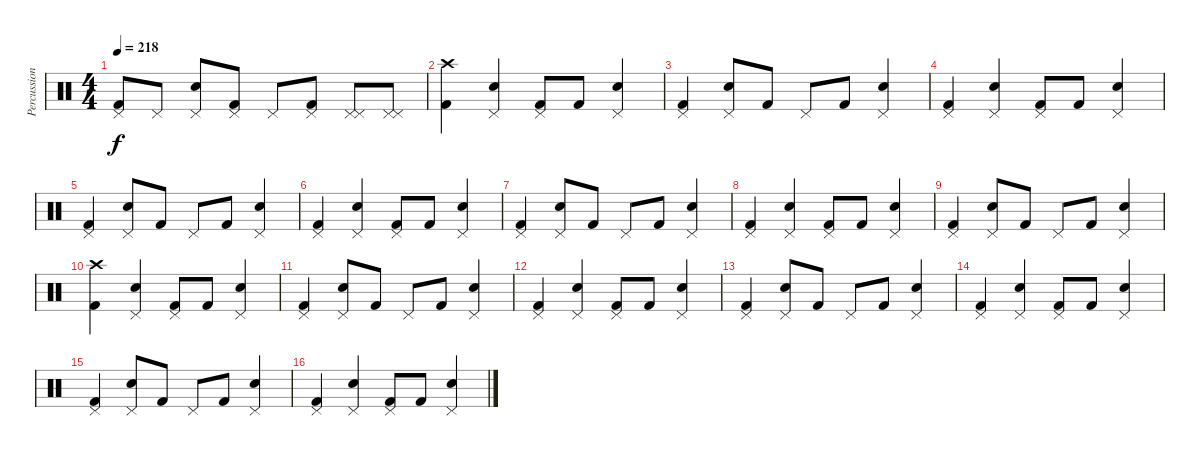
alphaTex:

\track ("Percussion" "Percussion") {instrument percussion}
\staff {score}
\articulation defaults
\ts (4 4)
\tempo 218
\clef neutral
\ks c
("Kick (hit) 2" "Pedal Hi-Hat (hit)").8{dy f} "Pedal Hi-Hat (hit)".8 ("Snare (hit) 2" "Pedal Hi-Hat (hit)").8 ("Kick (hit) 2" "Pedal Hi-Hat (hit)").8 "Pedal Hi-Hat (hit)".8 ("Kick (hit) 2" "Pedal Hi-Hat (hit)").8 ("Pedal Hi-Hat (hit)" "Pedal Hi-Hat (hit)").8 ("Pedal Hi-Hat (hit)" "Pedal Hi-Hat (hit)").8 |
("Kick (hit) 2" "Crash high (hit)").4 ("Snare (hit) 2" "Pedal Hi-Hat (hit)").4 ("Kick (hit) 2" "Pedal Hi-Hat (hit)").8 "Kick (hit) 2".8 ("Snare (hit) 2" "Pedal Hi-Hat (hit)").4 |
("Kick (hit) 2" "Pedal Hi-Hat (hit)").4 ("Snare (hit) 2" "Pedal Hi-Hat (hit)").8 "Kick (hit) 2".8 "Pedal Hi-Hat (hit)".8 "Kick (hit) 2".8 ("Snare (hit) 2" "Pedal Hi-Hat (hit)").4 |
("Kick (hit) 2" "Pedal Hi-Hat (hit)").4 ("Snare (hit) 2" "Pedal Hi-Hat (hit)").4 ("Kick (hit) 2" "Pedal Hi-Hat (hit)").8 "Kick (hit) 2".8 ("Snare (hit) 2" "Pedal Hi-Hat (hit)").4 |
("Kick (hit) 2" "Pedal Hi-Hat (hit)").4 ("Snare (hit) 2" "Pedal Hi-Hat (hit)").8 "Kick (hit) 2".8 "Pedal Hi-Hat (hit)".8 "Kick (hit) 2".8 ("Snare (hit) 2" "Pedal Hi-Hat (hit)").4 |
("Kick (hit) 2" "Pedal Hi-Hat (hit)").4 ("Snare (hit) 2" "Pedal Hi-Hat (hit)").4 ("Kick (hit) 2" "Pedal Hi-Hat (hit)").8 "Kick (hit) 2".8 ("Snare (hit) 2" "Pedal Hi-Hat (hit)").4 |
("Kick (hit) 2" "Pedal Hi-Hat (hit)").4 ("Snare (hit) 2" "Pedal Hi-Hat (hit)").8 "Kick (hit) 2".8 "Pedal Hi-Hat (hit)".8 "Kick (hit) 2".8 ("Snare (hit) 2" "Pedal Hi-Hat (hit)").4 |
("Kick (hit) 2" "Pedal Hi-Hat (hit)").4 ("Snare (hit) 2" "Pedal Hi-Hat (hit)").4 ("Kick (hit) 2" "Pedal Hi-Hat (hit)").8 "Kick (hit) 2".8 ("Snare (hit) 2" "Pedal Hi-Hat (hit)").4 |
("Kick (hit) 2" "Pedal Hi-Hat (hit)").4 ("Snare (hit) 2" "Pedal Hi-Hat (hit)").8 "Kick (hit) 2".8 "Pedal Hi-Hat (hit)".8 "Kick (hit) 2".8 ("Snare (hit) 2" "Pedal Hi-Hat (hit)").4 |
("Kick (hit) 2" "Crash high (hit)").4 ("Snare (hit) 2" "Pedal Hi-Hat (hit)").4 ("Kick (hit) 2" "Pedal Hi-Hat (hit)").8 "Kick (hit) 2".8 ("Snare (hit) 2" "Pedal Hi-Hat (hit)").4 |
("Kick (hit) 2" "Pedal Hi-Hat (hit)").4 ("Snare (hit) 2" "Pedal Hi-Hat (hit)").8 "Kick (hit) 2".8 "Pedal Hi-Hat (hit)".8 "Kick (hit) 2".8 ("Snare (hit) 2" "Pedal Hi-Hat (hit)").4 |
("Kick (hit) 2" "Pedal Hi-Hat (hit)").4 ("Snare (hit) 2" "Pedal Hi-Hat (hit)").4 ("Kick (hit) 2" "Pedal Hi-Hat (hit)").8 "Kick (hit) 2".8 ("Snare (hit) 2" "Pedal Hi-Hat (hit)").4 |
("Kick (hit) 2" "Pedal Hi-Hat (hit)").4 ("Snare (hit) 2" "Pedal Hi-Hat (hit)").8 "Kick (hit) 2".8 "Pedal Hi-Hat (hit)".8 "Kick (hit) 2".8 ("Snare (hit) 2" "Pedal Hi-Hat (hit)").4 |
("Kick (hit) 2" "Pedal Hi-Hat (hit)").4 ("Snare (hit) 2" "Pedal Hi-Hat (hit)").4 ("Kick (hit) 2" "Pedal Hi-Hat (hit)").8 "Kick (hit) 2".8 ("Snare (hit) 2" "Pedal Hi-Hat (hit)").4 |
("Kick (hit) 2" "Pedal Hi-Hat (hit)").4 ("Snare (hit) 2" "Pedal Hi-Hat (hit)").8 "Kick (hit) 2".8 "Pedal Hi-Hat (hit)".8 "Kick (hit) 2".8 ("Snare (hit) 2" "Pedal Hi-Hat (hit)").4 |
("Kick (hit) 2" "Pedal Hi-Hat (hit)").4 ("Snare (hit) 2" "Pedal Hi-Hat (hit)").4 ("Kick (hit) 2" "Pedal Hi-Hat (hit)").8 "Kick (hit) 2".8 ("Snare (hit) 2" "Pedal Hi-Hat (hit)").4
